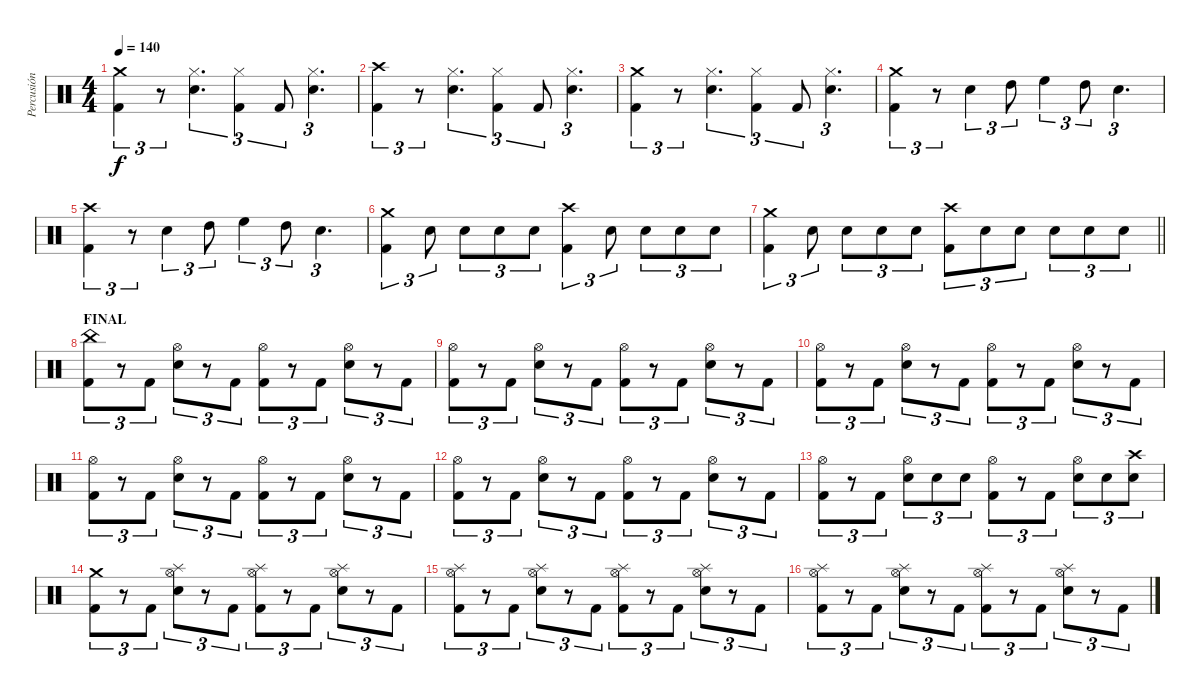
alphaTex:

\track ("Percusión" "Percusión") {instrument percussion}
\staff {score}
\articulation defaults
\ts (4 4)
\tempo 140
\clef neutral
\ks c
("Crash medium (hit)" "Kick (hit) 2").4{tu (3 2) dy f} r.8{tu (3 2)} ("Hi-Hat (closed)" "Snare (hit) 2").4{d tu (3 2)} ("Hi-Hat (closed)" "Kick (hit) 2").4{tu (3 2)} "Kick (hit) 2".8{tu (3 2)} ("Hi-Hat (closed)" "Snare (hit) 2").4{d tu (3 2)} |
("Crash high (hit)" "Kick (hit) 2").4{tu (3 2)} r.8{tu (3 2)} ("Hi-Hat (closed)" "Snare (hit) 2").4{d tu (3 2)} ("Hi-Hat (closed)" "Kick (hit) 2").4{tu (3 2)} "Kick (hit) 2".8{tu (3 2)} ("Hi-Hat (closed)" "Snare (hit) 2").4{d tu (3 2)} |
("Crash medium (hit)" "Kick (hit) 2").4{tu (3 2)} r.8{tu (3 2)} ("Hi-Hat (closed)" "Snare (hit) 2").4{d tu (3 2)} ("Hi-Hat (closed)" "Kick (hit) 2").4{tu (3 2)} "Kick (hit) 2".8{tu (3 2)} ("Hi-Hat (closed)" "Snare (hit) 2").4{d tu (3 2)} |
("Crash medium (hit)" "Kick (hit) 2").4{tu (3 2)} r.8{tu (3 2)} "Snare (hit) 2".4{tu (3 2)} "High Tom (hit)".8{tu (3 2)} "High Floor Tom (hit)".4{tu (3 2)} "High Tom (hit)".8{tu (3 2)} "Snare (hit) 2".4{d tu (3 2)} |
("Crash high (hit)" "Kick (hit) 2").4{tu (3 2)} r.8{tu (3 2)} "Snare (hit) 2".4{tu (3 2)} "High Tom (hit)".8{tu (3 2)} "High Floor Tom (hit)".4{tu (3 2)} "High Tom (hit)".8{tu (3 2)} "Snare (hit) 2".4{d tu (3 2)} |
("Crash medium (hit)" "Kick (hit) 2").4{tu (3 2)} "Snare (hit) 2".8{tu (3 2)} "Snare (hit) 2".8{tu (3 2)} "Snare (hit) 2".8{tu (3 2)} "Snare (hit) 2".8{tu (3 2)} ("Crash high (hit)" "Kick (hit) 2").4{tu (3 2)} "Snare (hit) 2".8{tu (3 2)} "Snare (hit) 2".8{tu (3 2)} "Snare (hit) 2".8{tu (3 2)} "Snare (hit) 2".8{tu (3 2)} |
\barLineRight lightlight
("Crash medium (hit)" "Kick (hit) 2").4{tu (3 2)} "Snare (hit) 2".8{tu (3 2)} "Snare (hit) 2".8{tu (3 2)} "Snare (hit) 2".8{tu (3 2)} "Snare (hit) 2".8{tu (3 2)} ("Crash high (hit)" "Kick (hit) 2").8{tu (3 2)} "Snare (hit) 2".8{tu (3 2)} "Snare (hit) 2".8{tu (3 2)} "Snare (hit) 2".8{tu (3 2)} "Snare (hit) 2".8{tu (3 2)} "Snare (hit) 2".8{tu (3 2)} |
\section ("" "FINAL")
("China (hit)" "Kick (hit) 2").8{tu (3 2)} r.8{tu (3 2)} "Kick (hit) 2".8{tu (3 2)} ("Hi-Hat (open)" "Snare (hit) 2").8{tu (3 2)} r.8{tu (3 2)} "Kick (hit) 2".8{tu (3 2)} ("Hi-Hat (open)" "Kick (hit) 2").8{tu (3 2)} r.8{tu (3 2)} "Kick (hit) 2".8{tu (3 2)} ("Hi-Hat (open)" "Snare (hit) 2").8{tu (3 2)} r.8{tu (3 2)} "Kick (hit) 2".8{tu (3 2)} |
("Hi-Hat (open)" "Kick (hit) 2").8{tu (3 2)} r.8{tu (3 2)} "Kick (hit) 2".8{tu (3 2)} ("Hi-Hat (open)" "Snare (hit) 2").8{tu (3 2)} r.8{tu (3 2)} "Kick (hit) 2".8{tu (3 2)} ("Hi-Hat (open)" "Kick (hit) 2").8{tu (3 2)} r.8{tu (3 2)} "Kick (hit) 2".8{tu (3 2)} ("Hi-Hat (open)" "Snare (hit) 2").8{tu (3 2)} r.8{tu (3 2)} "Kick (hit) 2".8{tu (3 2)} |
("Hi-Hat (open)" "Kick (hit) 2").8{tu (3 2)} r.8{tu (3 2)} "Kick (hit) 2".8{tu (3 2)} ("Hi-Hat (open)" "Snare (hit) 2").8{tu (3 2)} r.8{tu (3 2)} "Kick (hit) 2".8{tu (3 2)} ("Hi-Hat (open)" "Kick (hit) 2").8{tu (3 2)} r.8{tu (3 2)} "Kick (hit) 2".8{tu (3 2)} ("Hi-Hat (open)" "Snare (hit) 2").8{tu (3 2)} r.8{tu (3 2)} "Kick (hit) 2".8{tu (3 2)} |
("Hi-Hat (open)" "Kick (hit) 2").8{tu (3 2)} r.8{tu (3 2)} "Kick (hit) 2".8{tu (3 2)} ("Hi-Hat (open)" "Snare (hit) 2").8{tu (3 2)} r.8{tu (3 2)} "Kick (hit) 2".8{tu (3 2)} ("Hi-Hat (open)" "Kick (hit) 2").8{tu (3 2)} r.8{tu (3 2)} "Kick (hit) 2".8{tu (3 2)} ("Hi-Hat (open)" "Snare (hit) 2").8{tu (3 2)} r.8{tu (3 2)} "Kick (hit) 2".8{tu (3 2)} |
("Hi-Hat (open)" "Kick (hit) 2").8{tu (3 2)} r.8{tu (3 2)} "Kick (hit) 2".8{tu (3 2)} ("Hi-Hat (open)" "Snare (hit) 2").8{tu (3 2)} r.8{tu (3 2)} "Kick (hit) 2".8{tu (3 2)} ("Hi-Hat (open)" "Kick (hit) 2").8{tu (3 2)} r.8{tu (3 2)} "Kick (hit) 2".8{tu (3 2)} ("Hi-Hat (open)" "Snare (hit) 2").8{tu (3 2)} r.8{tu (3 2)} "Kick (hit) 2".8{tu (3 2)} |
("Hi-Hat (open)" "Kick (hit) 2").8{tu (3 2)} r.8{tu (3 2)} "Kick (hit) 2".8{tu (3 2)} ("Hi-Hat (open)" "Snare (hit) 2").8{tu (3 2)} "Snare (hit) 2".8{tu (3 2)} "Snare (hit) 2".8{tu (3 2)} ("Hi-Hat (open)" "Kick (hit) 2").8{tu (3 2)} r.8{tu (3 2)} "Kick (hit) 2".8{tu (3 2)} ("Hi-Hat (open)" "Snare (hit) 2").8{tu (3 2)} "Snare (hit) 2".8{tu (3 2)} ("Crash high (hit)" "Snare (hit) 2").8{tu (3 2)} |
("Crash medium (hit)" "Kick (hit) 2").8{tu (3 2)} r.8{tu (3 2)} "Kick (hit) 2".8{tu (3 2)} ("Hi-Hat (open)" "Splash (hit)" "Snare (hit) 2").8{tu (3 2)} r.8{tu (3 2)} "Kick (hit) 2".8{tu (3 2)} ("Hi-Hat (open)" "Splash (hit)" "Kick (hit) 2").8{tu (3 2)} r.8{tu (3 2)} "Kick (hit) 2".8{tu (3 2)} ("Hi-Hat (open)" "Splash (hit)" "Snare (hit) 2").8{tu (3 2)} r.8{tu (3 2)} "Kick (hit) 2".8{tu (3 2)} |
("Hi-Hat (open)" "Splash (hit)" "Kick (hit) 2").8{tu (3 2)} r.8{tu (3 2)} "Kick (hit) 2".8{tu (3 2)} ("Hi-Hat (open)" "Splash (hit)" "Snare (hit) 2").8{tu (3 2)} r.8{tu (3 2)} "Kick (hit) 2".8{tu (3 2)} ("Hi-Hat (open)" "Splash (hit)" "Kick (hit) 2").8{tu (3 2)} r.8{tu (3 2)} "Kick (hit) 2".8{tu (3 2)} ("Hi-Hat (open)" "Splash (hit)" "Snare (hit) 2").8{tu (3 2)} r.8{tu (3 2)} "Kick (hit) 2".8{tu (3 2)} |
("Hi-Hat (open)" "Splash (hit)" "Kick (hit) 2").8{tu (3 2)} r.8{tu (3 2)} "Kick (hit) 2".8{tu (3 2)} ("Hi-Hat (open)" "Splash (hit)" "Snare (hit) 2").8{tu (3 2)} r.8{tu (3 2)} "Kick (hit) 2".8{tu (3 2)} ("Hi-Hat (open)" "Splash (hit)" "Kick (hit) 2").8{tu (3 2)} r.8{tu (3 2)} "Kick (hit) 2".8{tu (3 2)} ("Hi-Hat (open)" "Splash (hit)" "Snare (hit) 2").8{tu (3 2)} r.8{tu (3 2)} "Kick (hit) 2".8{tu (3 2)}
